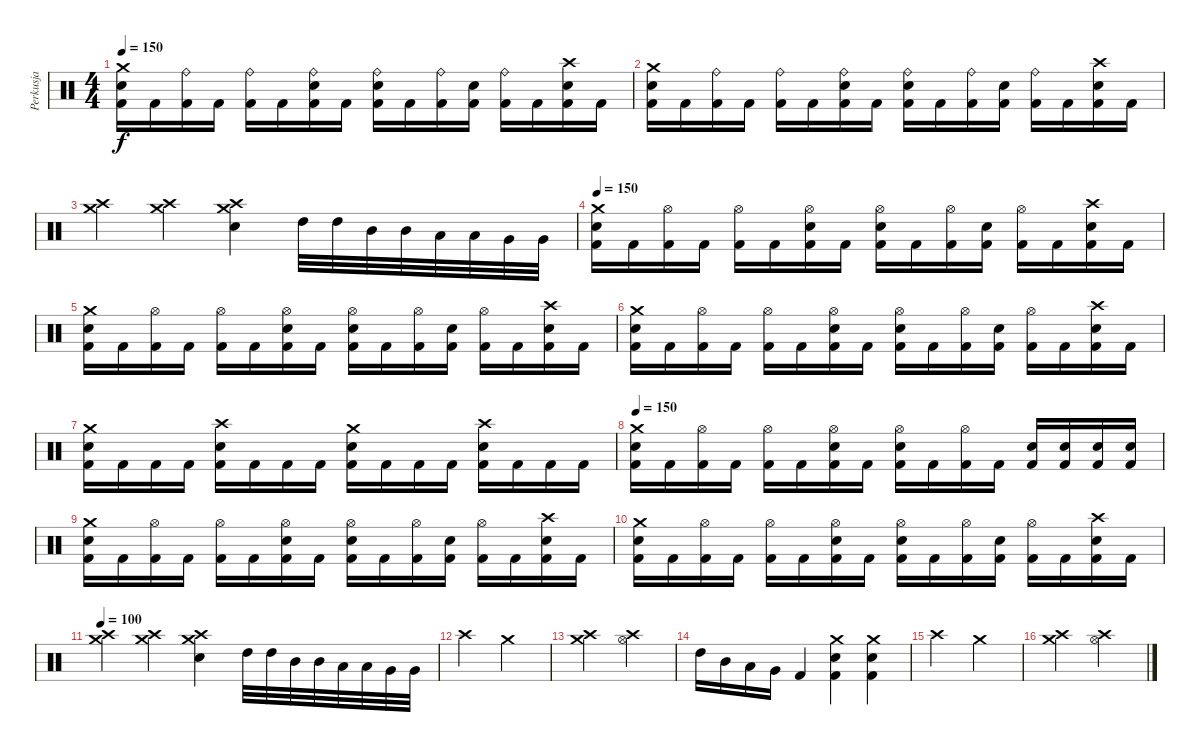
\track ("Perkusja" "Perkusja") {instrument percussion}
\staff {score}
\articulation defaults
\ts (4 4)
\tempo 150
\clef neutral
\ks c
("Crash medium (hit)" "Electric Snare (hit)" "Kick (hit) 2").16{dy f} "Kick (hit) 2".16 ("Ride (bell)" "Kick (hit) 2").16 "Kick (hit) 2".16 ("Ride (bell)" "Kick (hit) 2").16 "Kick (hit) 2".16 ("Ride (bell)" "Electric Snare (hit)" "Kick (hit) 2").16 "Kick (hit) 2".16 ("Ride (bell)" "Electric Snare (hit)" "Kick (hit) 2").16 "Kick (hit) 2".16 ("Ride (bell)" "Kick (hit) 2").16 ("Electric Snare (hit)" "Kick (hit) 2").16 ("Ride (bell)" "Kick (hit) 2").16 "Kick (hit) 2".16 ("Crash high (hit)" "Electric Snare (hit)" "Kick (hit) 2").16 "Kick (hit) 2".16 |
("Crash medium (hit)" "Electric Snare (hit)" "Kick (hit) 2").16 "Kick (hit) 2".16 ("Ride (bell)" "Kick (hit) 2").16 "Kick (hit) 2".16 ("Ride (bell)" "Kick (hit) 2").16 "Kick (hit) 2".16 ("Ride (bell)" "Electric Snare (hit)" "Kick (hit) 2").16 "Kick (hit) 2".16 ("Ride (bell)" "Electric Snare (hit)" "Kick (hit) 2").16 "Kick (hit) 2".16 ("Ride (bell)" "Kick (hit) 2").16 ("Electric Snare (hit)" "Kick (hit) 2").16 ("Ride (bell)" "Kick (hit) 2").16 "Kick (hit) 2".16 ("Crash high (hit)" "Electric Snare (hit)" "Kick (hit) 2").16 "Kick (hit) 2".16 |
("Crash medium (hit)" "Crash high (hit)").4 ("Crash medium (hit)" "Crash high (hit)").4 ("Crash high (hit)" "Crash medium (hit)" "Electric Snare (hit)").4 "High Tom (hit)".32 "High Tom (hit)".32 "Mid Tom (hit)".32 "Mid Tom (hit)".32 "Low Tom (hit)".32 "Low Tom (hit)".32 "Very Low Tom (hit)".32 "Very Low Tom (hit)".32 |
\tempo 150
("Crash medium (hit)" "Electric Snare (hit)" "Kick (hit) 2").16 "Kick (hit) 2".16 ("Hi-Hat (open)" "Kick (hit) 2").16 "Kick (hit) 2".16 ("Hi-Hat (open)" "Kick (hit) 2").16 "Kick (hit) 2".16 ("Hi-Hat (open)" "Electric Snare (hit)" "Kick (hit) 2").16 "Kick (hit) 2".16 ("Hi-Hat (open)" "Electric Snare (hit)" "Kick (hit) 2").16 "Kick (hit) 2".16 ("Hi-Hat (open)" "Kick (hit) 2").16 ("Electric Snare (hit)" "Kick (hit) 2").16 ("Hi-Hat (open)" "Kick (hit) 2").16 "Kick (hit) 2".16 ("Crash high (hit)" "Electric Snare (hit)" "Kick (hit) 2").16 "Kick (hit) 2".16 |
("Crash medium (hit)" "Electric Snare (hit)" "Kick (hit) 2").16 "Kick (hit) 2".16 ("Hi-Hat (open)" "Kick (hit) 2").16 "Kick (hit) 2".16 ("Hi-Hat (open)" "Kick (hit) 2").16 "Kick (hit) 2".16 ("Hi-Hat (open)" "Electric Snare (hit)" "Kick (hit) 2").16 "Kick (hit) 2".16 ("Hi-Hat (open)" "Electric Snare (hit)" "Kick (hit) 2").16 "Kick (hit) 2".16 ("Hi-Hat (open)" "Kick (hit) 2").16 ("Electric Snare (hit)" "Kick (hit) 2").16 ("Hi-Hat (open)" "Kick (hit) 2").16 "Kick (hit) 2".16 ("Crash high (hit)" "Electric Snare (hit)" "Kick (hit) 2").16 "Kick (hit) 2".16 |
("Crash medium (hit)" "Electric Snare (hit)" "Kick (hit) 2").16 "Kick (hit) 2".16 ("Hi-Hat (open)" "Kick (hit) 2").16 "Kick (hit) 2".16 ("Hi-Hat (open)" "Kick (hit) 2").16 "Kick (hit) 2".16 ("Hi-Hat (open)" "Electric Snare (hit)" "Kick (hit) 2").16 "Kick (hit) 2".16 ("Hi-Hat (open)" "Electric Snare (hit)" "Kick (hit) 2").16 "Kick (hit) 2".16 ("Hi-Hat (open)" "Kick (hit) 2").16 ("Electric Snare (hit)" "Kick (hit) 2").16 ("Hi-Hat (open)" "Kick (hit) 2").16 "Kick (hit) 2".16 ("Crash high (hit)" "Electric Snare (hit)" "Kick (hit) 2").16 "Kick (hit) 2".16 |
("Crash medium (hit)" "Electric Snare (hit)" "Kick (hit) 2").16 "Kick (hit) 2".16 "Kick (hit) 2".16 "Kick (hit) 2".16 ("Crash high (hit)" "Electric Snare (hit)" "Kick (hit) 2").16 "Kick (hit) 2".16 "Kick (hit) 2".16 "Kick (hit) 2".16 ("Crash medium (hit)" "Electric Snare (hit)" "Kick (hit) 2").16 "Kick (hit) 2".16 "Kick (hit) 2".16 "Kick (hit) 2".16 ("Crash high (hit)" "Electric Snare (hit)" "Kick (hit) 2").16 "Kick (hit) 2".16 "Kick (hit) 2".16 "Kick (hit) 2".16 |
\tempo 150
("Crash medium (hit)" "Electric Snare (hit)" "Kick (hit) 2").16 "Kick (hit) 2".16 ("Hi-Hat (open)" "Kick (hit) 2").16 "Kick (hit) 2".16 ("Hi-Hat (open)" "Kick (hit) 2").16 "Kick (hit) 2".16 ("Hi-Hat (open)" "Electric Snare (hit)" "Kick (hit) 2").16 "Kick (hit) 2".16 ("Hi-Hat (open)" "Electric Snare (hit)" "Kick (hit) 2").16 "Kick (hit) 2".16 ("Hi-Hat (open)" "Kick (hit) 2").16 "Kick (hit) 2".16 ("Electric Snare (hit)" "Kick (hit) 2").16 ("Electric Snare (hit)" "Kick (hit) 2").16 ("Electric Snare (hit)" "Kick (hit) 2").16 ("Electric Snare (hit)" "Kick (hit) 2").16 |
("Crash medium (hit)" "Electric Snare (hit)" "Kick (hit) 2").16 "Kick (hit) 2".16 ("Hi-Hat (open)" "Kick (hit) 2").16 "Kick (hit) 2".16 ("Hi-Hat (open)" "Kick (hit) 2").16 "Kick (hit) 2".16 ("Hi-Hat (open)" "Electric Snare (hit)" "Kick (hit) 2").16 "Kick (hit) 2".16 ("Hi-Hat (open)" "Electric Snare (hit)" "Kick (hit) 2").16 "Kick (hit) 2".16 ("Hi-Hat (open)" "Kick (hit) 2").16 ("Electric Snare (hit)" "Kick (hit) 2").16 ("Hi-Hat (open)" "Kick (hit) 2").16 "Kick (hit) 2".16 ("Crash high (hit)" "Electric Snare (hit)" "Kick (hit) 2").16 "Kick (hit) 2".16 |
("Crash medium (hit)" "Electric Snare (hit)" "Kick (hit) 2").16 "Kick (hit) 2".16 ("Hi-Hat (open)" "Kick (hit) 2").16 "Kick (hit) 2".16 ("Hi-Hat (open)" "Kick (hit) 2").16 "Kick (hit) 2".16 ("Hi-Hat (open)" "Electric Snare (hit)" "Kick (hit) 2").16 "Kick (hit) 2".16 ("Hi-Hat (open)" "Electric Snare (hit)" "Kick (hit) 2").16 "Kick (hit) 2".16 ("Hi-Hat (open)" "Kick (hit) 2").16 ("Electric Snare (hit)" "Kick (hit) 2").16 ("Hi-Hat (open)" "Kick (hit) 2").16 "Kick (hit) 2".16 ("Crash high (hit)" "Electric Snare (hit)" "Kick (hit) 2").16 "Kick (hit) 2".16 |
\tempo 100
("Crash medium (hit)" "Crash high (hit)").4 ("Crash medium (hit)" "Crash high (hit)").4 ("Crash high (hit)" "Crash medium (hit)" "Electric Snare (hit)").4 "High Tom (hit)".32 "High Tom (hit)".32 "Mid Tom (hit)".32 "Mid Tom (hit)".32 "Low Tom (hit)".32 "Low Tom (hit)".32 "Very Low Tom (hit)".32 "Very Low Tom (hit)".32 |
"Crash high (hit)".2 "Crash medium (hit)".2 |
("Crash medium (hit)" "Crash high (hit)").2 ("Crash high (hit)" "Hi-Hat (open)").2 |
"High Tom (hit)".16 "Mid Tom (hit)".16 "Low Tom (hit)".16 "Very Low Tom (hit)".16 "Kick (hit) 2".4 ("Crash medium (hit)" "Electric Snare (hit)" "Kick (hit) 2").4 ("Crash medium (hit)" "Electric Snare (hit)" "Kick (hit) 2").4 |
"Crash high (hit)".2 "Crash medium (hit)".2 |
("Crash medium (hit)" "Crash high (hit)").2 ("Crash high (hit)" "Hi-Hat (open)").2
